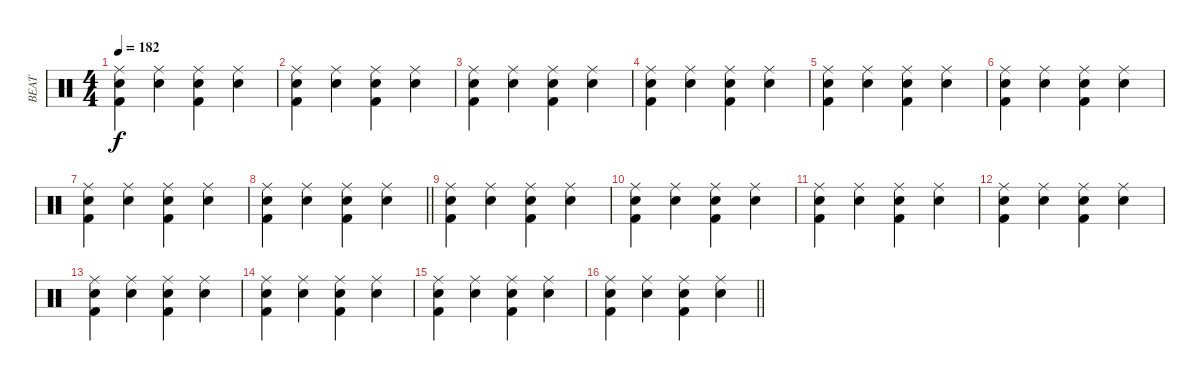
\track ("BEAT" "BEAT") {instrument percussion}
\staff {score}
\articulation defaults
\ts (4 4)
\tempo 182
\clef neutral
\ks c
("Ride (middle)" "Electric Snare (hit)" "Kick (hit) 2").4{dy f volume 4} ("Ride (middle)" "Electric Snare (hit)").4 ("Ride (middle)" "Electric Snare (hit)" "Kick (hit) 2").4 ("Ride (middle)" "Electric Snare (hit)").4 |
("Ride (middle)" "Electric Snare (hit)" "Kick (hit) 2").4 ("Ride (middle)" "Electric Snare (hit)").4 ("Ride (middle)" "Electric Snare (hit)" "Kick (hit) 2").4 ("Ride (middle)" "Electric Snare (hit)").4 |
("Ride (middle)" "Electric Snare (hit)" "Kick (hit) 2").4 ("Ride (middle)" "Electric Snare (hit)").4 ("Ride (middle)" "Electric Snare (hit)" "Kick (hit) 2").4 ("Ride (middle)" "Electric Snare (hit)").4 |
("Ride (middle)" "Electric Snare (hit)" "Kick (hit) 2").4 ("Ride (middle)" "Electric Snare (hit)").4 ("Ride (middle)" "Electric Snare (hit)" "Kick (hit) 2").4 ("Ride (middle)" "Electric Snare (hit)").4 |
("Ride (middle)" "Electric Snare (hit)" "Kick (hit) 2").4 ("Ride (middle)" "Electric Snare (hit)").4 ("Ride (middle)" "Electric Snare (hit)" "Kick (hit) 2").4 ("Ride (middle)" "Electric Snare (hit)").4 |
("Ride (middle)" "Electric Snare (hit)" "Kick (hit) 2").4 ("Ride (middle)" "Electric Snare (hit)").4 ("Ride (middle)" "Electric Snare (hit)" "Kick (hit) 2").4 ("Ride (middle)" "Electric Snare (hit)").4 |
("Ride (middle)" "Electric Snare (hit)" "Kick (hit) 2").4 ("Ride (middle)" "Electric Snare (hit)").4 ("Ride (middle)" "Electric Snare (hit)" "Kick (hit) 2").4 ("Ride (middle)" "Electric Snare (hit)").4 |
\barLineRight lightlight
("Ride (middle)" "Electric Snare (hit)" "Kick (hit) 2").4 ("Ride (middle)" "Electric Snare (hit)").4 ("Ride (middle)" "Electric Snare (hit)" "Kick (hit) 2").4 ("Ride (middle)" "Electric Snare (hit)").4 |
("Ride (middle)" "Electric Snare (hit)" "Kick (hit) 2").4{volume 5} ("Ride (middle)" "Electric Snare (hit)").4 ("Ride (middle)" "Electric Snare (hit)" "Kick (hit) 2").4 ("Ride (middle)" "Electric Snare (hit)").4 |
("Ride (middle)" "Electric Snare (hit)" "Kick (hit) 2").4 ("Ride (middle)" "Electric Snare (hit)").4 ("Ride (middle)" "Electric Snare (hit)" "Kick (hit) 2").4 ("Ride (middle)" "Electric Snare (hit)").4 |
("Ride (middle)" "Electric Snare (hit)" "Kick (hit) 2").4 ("Ride (middle)" "Electric Snare (hit)").4 ("Ride (middle)" "Electric Snare (hit)" "Kick (hit) 2").4 ("Ride (middle)" "Electric Snare (hit)").4 |
("Ride (middle)" "Electric Snare (hit)" "Kick (hit) 2").4 ("Ride (middle)" "Electric Snare (hit)").4 ("Ride (middle)" "Electric Snare (hit)" "Kick (hit) 2").4 ("Ride (middle)" "Electric Snare (hit)").4 |
("Ride (middle)" "Electric Snare (hit)" "Kick (hit) 2").4{volume 7} ("Ride (middle)" "Electric Snare (hit)").4 ("Ride (middle)" "Electric Snare (hit)" "Kick (hit) 2").4 ("Ride (middle)" "Electric Snare (hit)").4 |
("Ride (middle)" "Electric Snare (hit)" "Kick (hit) 2").4 ("Ride (middle)" "Electric Snare (hit)").4 ("Ride (middle)" "Electric Snare (hit)" "Kick (hit) 2").4 ("Ride (middle)" "Electric Snare (hit)").4 |
("Ride (middle)" "Electric Snare (hit)" "Kick (hit) 2").4 ("Ride (middle)" "Electric Snare (hit)").4 ("Ride (middle)" "Electric Snare (hit)" "Kick (hit) 2").4 ("Ride (middle)" "Electric Snare (hit)").4 |
\barLineRight lightlight
("Ride (middle)" "Electric Snare (hit)" "Kick (hit) 2").4 ("Ride (middle)" "Electric Snare (hit)").4 ("Ride (middle)" "Electric Snare (hit)" "Kick (hit) 2").4 ("Ride (middle)" "Electric Snare (hit)").4
